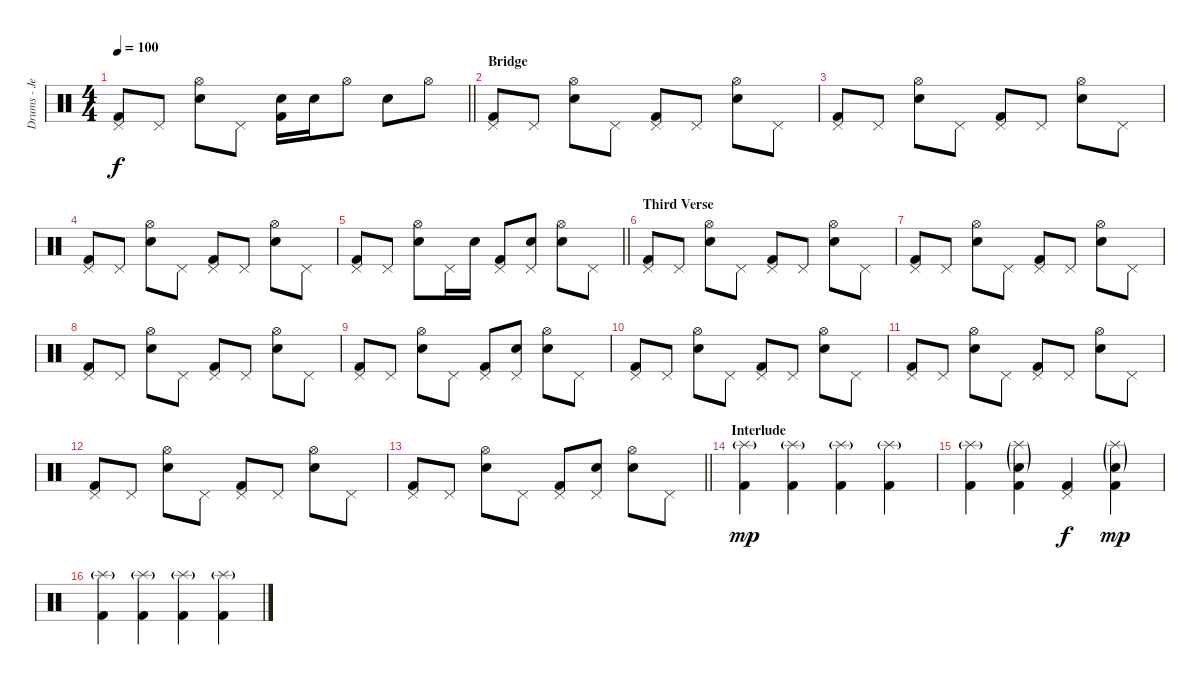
\track ("Drums - Jeremiah Green" "Drums - Je") {instrument percussion}
\staff {score}
\articulation defaults
\ts (4 4)
\tempo 100
\clef neutral
\barLineRight lightlight
\ks c
("Pedal Hi-Hat (hit)" "Kick (hit) 2").8{dy f} "Pedal Hi-Hat (hit)".8 ("Hi-Hat (open)" "Electric Snare (hit)").8 "Pedal Hi-Hat (hit)".8 ("Electric Snare (hit)" "Kick (hit) 2").16 "Electric Snare (hit)".16 "Hi-Hat (open)".8 "Electric Snare (hit)".8 "Hi-Hat (open)".8 |
\section ("" "Bridge")
("Pedal Hi-Hat (hit)" "Kick (hit) 2").8 "Pedal Hi-Hat (hit)".8 ("Hi-Hat (open)" "Electric Snare (hit)").8 "Pedal Hi-Hat (hit)".8 ("Pedal Hi-Hat (hit)" "Kick (hit) 2").8 "Pedal Hi-Hat (hit)".8 ("Hi-Hat (open)" "Electric Snare (hit)").8 "Pedal Hi-Hat (hit)".8 |
("Pedal Hi-Hat (hit)" "Kick (hit) 2").8 "Pedal Hi-Hat (hit)".8 ("Hi-Hat (open)" "Electric Snare (hit)").8 "Pedal Hi-Hat (hit)".8 ("Pedal Hi-Hat (hit)" "Kick (hit) 2").8 "Pedal Hi-Hat (hit)".8 ("Hi-Hat (open)" "Electric Snare (hit)").8 "Pedal Hi-Hat (hit)".8 |
("Pedal Hi-Hat (hit)" "Kick (hit) 2").8 "Pedal Hi-Hat (hit)".8 ("Hi-Hat (open)" "Electric Snare (hit)").8 "Pedal Hi-Hat (hit)".8 ("Pedal Hi-Hat (hit)" "Kick (hit) 2").8 "Pedal Hi-Hat (hit)".8 ("Hi-Hat (open)" "Electric Snare (hit)").8 "Pedal Hi-Hat (hit)".8 |
\barLineRight lightlight
("Pedal Hi-Hat (hit)" "Kick (hit) 2").8 "Pedal Hi-Hat (hit)".8 ("Hi-Hat (open)" "Electric Snare (hit)").8 "Pedal Hi-Hat (hit)".16 "Electric Snare (hit)".16 ("Pedal Hi-Hat (hit)" "Kick (hit) 2").8 ("Pedal Hi-Hat (hit)" "Electric Snare (hit)").8 ("Hi-Hat (open)" "Electric Snare (hit)").8 "Pedal Hi-Hat (hit)".8 |
\section ("" "Third Verse")
("Pedal Hi-Hat (hit)" "Kick (hit) 2").8 "Pedal Hi-Hat (hit)".8 ("Hi-Hat (open)" "Electric Snare (hit)").8 "Pedal Hi-Hat (hit)".8 ("Pedal Hi-Hat (hit)" "Kick (hit) 2").8 "Pedal Hi-Hat (hit)".8 ("Hi-Hat (open)" "Electric Snare (hit)").8 "Pedal Hi-Hat (hit)".8 |
("Pedal Hi-Hat (hit)" "Kick (hit) 2").8 "Pedal Hi-Hat (hit)".8 ("Hi-Hat (open)" "Electric Snare (hit)").8 "Pedal Hi-Hat (hit)".8 ("Pedal Hi-Hat (hit)" "Kick (hit) 2").8 "Pedal Hi-Hat (hit)".8 ("Hi-Hat (open)" "Electric Snare (hit)").8 "Pedal Hi-Hat (hit)".8 |
("Pedal Hi-Hat (hit)" "Kick (hit) 2").8 "Pedal Hi-Hat (hit)".8 ("Hi-Hat (open)" "Electric Snare (hit)").8 "Pedal Hi-Hat (hit)".8 ("Pedal Hi-Hat (hit)" "Kick (hit) 2").8 "Pedal Hi-Hat (hit)".8 ("Hi-Hat (open)" "Electric Snare (hit)").8 "Pedal Hi-Hat (hit)".8 |
("Pedal Hi-Hat (hit)" "Kick (hit) 2").8 "Pedal Hi-Hat (hit)".8 ("Hi-Hat (open)" "Electric Snare (hit)").8 "Pedal Hi-Hat (hit)".8 ("Pedal Hi-Hat (hit)" "Kick (hit) 2").8 ("Pedal Hi-Hat (hit)" "Electric Snare (hit)").8 ("Hi-Hat (open)" "Electric Snare (hit)").8 "Pedal Hi-Hat (hit)".8 |
("Pedal Hi-Hat (hit)" "Kick (hit) 2").8 "Pedal Hi-Hat (hit)".8 ("Hi-Hat (open)" "Electric Snare (hit)").8 "Pedal Hi-Hat (hit)".8 ("Pedal Hi-Hat (hit)" "Kick (hit) 2").8 "Pedal Hi-Hat (hit)".8 ("Hi-Hat (open)" "Electric Snare (hit)").8 "Pedal Hi-Hat (hit)".8 |
("Pedal Hi-Hat (hit)" "Kick (hit) 2").8 "Pedal Hi-Hat (hit)".8 ("Hi-Hat (open)" "Electric Snare (hit)").8 "Pedal Hi-Hat (hit)".8 ("Pedal Hi-Hat (hit)" "Kick (hit) 2").8 "Pedal Hi-Hat (hit)".8 ("Hi-Hat (open)" "Electric Snare (hit)").8 "Pedal Hi-Hat (hit)".8 |
("Pedal Hi-Hat (hit)" "Kick (hit) 2").8 "Pedal Hi-Hat (hit)".8 ("Hi-Hat (open)" "Electric Snare (hit)").8 "Pedal Hi-Hat (hit)".8 ("Pedal Hi-Hat (hit)" "Kick (hit) 2").8 "Pedal Hi-Hat (hit)".8 ("Hi-Hat (open)" "Electric Snare (hit)").8 "Pedal Hi-Hat (hit)".8 |
\barLineRight lightlight
("Pedal Hi-Hat (hit)" "Kick (hit) 2").8 "Pedal Hi-Hat (hit)".8 ("Hi-Hat (open)" "Electric Snare (hit)").8 "Pedal Hi-Hat (hit)".8 ("Pedal Hi-Hat (hit)" "Kick (hit) 2").8 ("Pedal Hi-Hat (hit)" "Electric Snare (hit)").8 ("Hi-Hat (open)" "Electric Snare (hit)").8 "Pedal Hi-Hat (hit)".8 |
\section ("" "Interlude")
("Splash (hit)"{g} "Kick (hit) 2").4{dy mp} ("Splash (hit)"{g} "Kick (hit) 2").4 ("Splash (hit)"{g} "Kick (hit) 2").4 ("Splash (hit)"{g} "Kick (hit) 2").4 |
("Splash (hit)"{g} "Kick (hit) 2").4 ("Splash (hit)"{g} "Electric Snare (hit)"{g} "Kick (hit) 2").4 ("Pedal Hi-Hat (hit)" "Kick (hit) 2").4{dy f} ("Splash (hit)"{g} "Electric Snare (hit)"{g} "Kick (hit) 2").4{dy mp} |
("Splash (hit)"{g} "Kick (hit) 2").4 ("Splash (hit)"{g} "Kick (hit) 2").4 ("Splash (hit)"{g} "Kick (hit) 2").4 ("Splash (hit)"{g} "Kick (hit) 2").4
